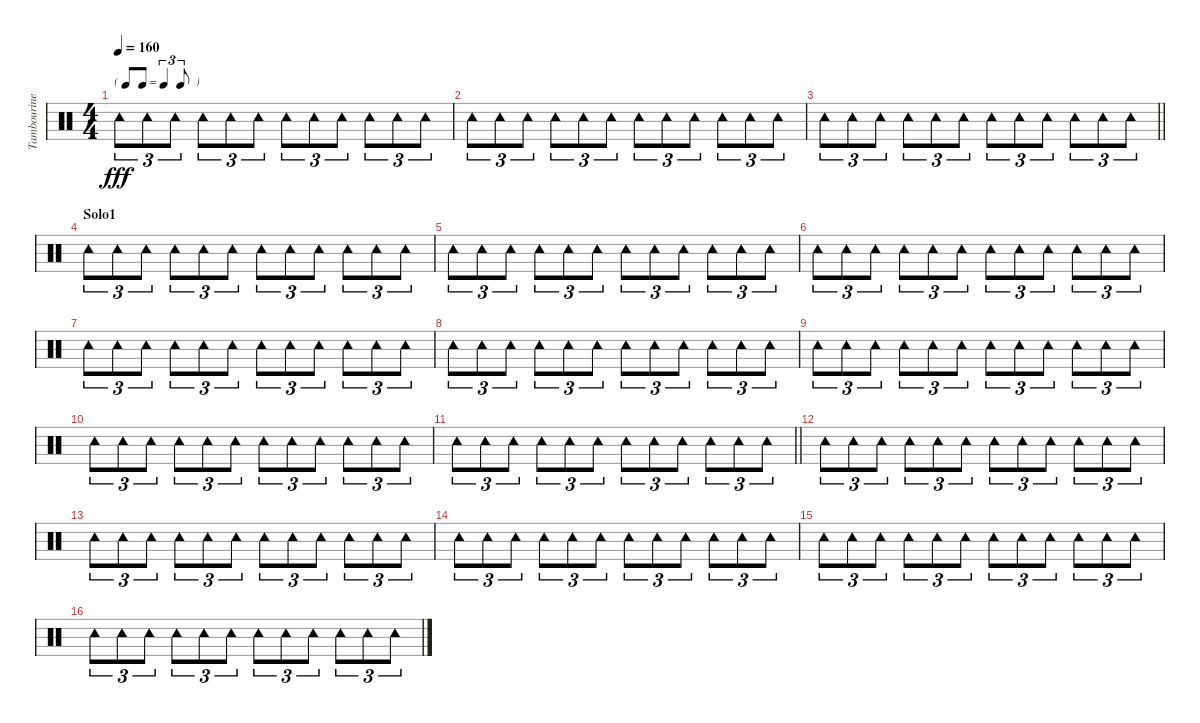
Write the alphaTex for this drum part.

\track ("Tambourine" "Tambourine") {instrument percussion}
\staff {score}
\articulation defaults
\ts (4 4)
\tf triplet8th
\tempo 160
\clef neutral
\ks c "Tambourine (hit)".8{tu (3 2) dy fff} "Tambourine (hit)".8{tu (3 2)} "Tambourine (hit)".8{tu (3 2)} "Tambourine (hit)".8{tu (3 2)} "Tambourine (hit)".8{tu (3 2)} "Tambourine (hit)".8{tu (3 2)} "Tambourine (hit)".8{tu (3 2)} "Tambourine (hit)".8{tu (3 2)} "Tambourine (hit)".8{tu (3 2)} "Tambourine (hit)".8{tu (3 2)} "Tambourine (hit)".8{tu (3 2)} "Tambourine (hit)".8{tu (3 2)}
|
"Tambourine (hit)".8{tu (3 2)} "Tambourine (hit)".8{tu (3 2)} "Tambourine (hit)".8{tu (3 2)} "Tambourine (hit)".8{tu (3 2)} "Tambourine (hit)".8{tu (3 2)} "Tambourine (hit)".8{tu (3 2)} "Tambourine (hit)".8{tu (3 2)} "Tambourine (hit)".8{tu (3 2)} "Tambourine (hit)".8{tu (3 2)} "Tambourine (hit)".8{tu (3 2)} "Tambourine (hit)".8{tu (3 2)} "Tambourine (hit)".8{tu (3 2)} |
\barLineRight lightlight "Tambourine (hit)".8{tu (3 2)} "Tambourine (hit)".8{tu (3 2)} "Tambourine (hit)".8{tu (3 2)} "Tambourine (hit)".8{tu (3 2)} "Tambourine (hit)".8{tu (3 2)} "Tambourine (hit)".8{tu (3 2)} "Tambourine (hit)".8{tu (3 2)} "Tambourine (hit)".8{tu (3 2)} "Tambourine (hit)".8{tu (3 2)} "Tambourine (hit)".8{tu (3 2)} "Tambourine (hit)".8{tu (3 2)} "Tambourine (hit)".8{tu (3 2)}
|
\section ("" "Solo1")
"Tambourine (hit)".8{tu (3 2)} "Tambourine (hit)".8{tu (3 2)} "Tambourine (hit)".8{tu (3 2)} "Tambourine (hit)".8{tu (3 2)} "Tambourine (hit)".8{tu (3 2)} "Tambourine (hit)".8{tu (3 2)} "Tambourine (hit)".8{tu (3 2)} "Tambourine (hit)".8{tu (3 2)} "Tambourine (hit)".8{tu (3 2)} "Tambourine (hit)".8{tu (3 2)} "Tambourine (hit)".8{tu (3 2)} "Tambourine (hit)".8{tu (3 2)} |
"Tambourine (hit)".8{tu (3 2)} "Tambourine (hit)".8{tu (3 2)} "Tambourine (hit)".8{tu (3 2)} "Tambourine (hit)".8{tu (3 2)} "Tambourine (hit)".8{tu (3 2)} "Tambourine (hit)".8{tu (3 2)} "Tambourine (hit)".8{tu (3 2)} "Tambourine (hit)".8{tu (3 2)} "Tambourine (hit)".8{tu (3 2)} "Tambourine (hit)".8{tu (3 2)} "Tambourine (hit)".8{tu (3 2)} "Tambourine (hit)".8{tu (3 2)} |
"Tambourine (hit)".8{tu (3 2)} "Tambourine (hit)".8{tu (3 2)} "Tambourine (hit)".8{tu (3 2)} "Tambourine (hit)".8{tu (3 2)} "Tambourine (hit)".8{tu (3 2)} "Tambourine (hit)".8{tu (3 2)} "Tambourine (hit)".8{tu (3 2)} "Tambourine (hit)".8{tu (3 2)} "Tambourine (hit)".8{tu (3 2)} "Tambourine (hit)".8{tu (3 2)} "Tambourine (hit)".8{tu (3 2)} "Tambourine (hit)".8{tu (3 2)} |
"Tambourine (hit)".8{tu (3 2)} "Tambourine (hit)".8{tu (3 2)} "Tambourine (hit)".8{tu (3 2)} "Tambourine (hit)".8{tu (3 2)} "Tambourine (hit)".8{tu (3 2)} "Tambourine (hit)".8{tu (3 2)} "Tambourine (hit)".8{tu (3 2)} "Tambourine (hit)".8{tu (3 2)} "Tambourine (hit)".8{tu (3 2)} "Tambourine (hit)".8{tu (3 2)} "Tambourine (hit)".8{tu (3 2)} "Tambourine (hit)".8{tu (3 2)} |
"Tambourine (hit)".8{tu (3 2)} "Tambourine (hit)".8{tu (3 2)} "Tambourine (hit)".8{tu (3 2)} "Tambourine (hit)".8{tu (3 2)} "Tambourine (hit)".8{tu (3 2)} "Tambourine (hit)".8{tu (3 2)} "Tambourine (hit)".8{tu (3 2)} "Tambourine (hit)".8{tu (3 2)} "Tambourine (hit)".8{tu (3 2)} "Tambourine (hit)".8{tu (3 2)} "Tambourine (hit)".8{tu (3 2)} "Tambourine (hit)".8{tu (3 2)} |
"Tambourine (hit)".8{tu (3 2)} "Tambourine (hit)".8{tu (3 2)} "Tambourine (hit)".8{tu (3 2)} "Tambourine (hit)".8{tu (3 2)} "Tambourine (hit)".8{tu (3 2)} "Tambourine (hit)".8{tu (3 2)} "Tambourine (hit)".8{tu (3 2)} "Tambourine (hit)".8{tu (3 2)} "Tambourine (hit)".8{tu (3 2)} "Tambourine (hit)".8{tu (3 2)} "Tambourine (hit)".8{tu (3 2)} "Tambourine (hit)".8{tu (3 2)} |
"Tambourine (hit)".8{tu (3 2)} "Tambourine (hit)".8{tu (3 2)} "Tambourine (hit)".8{tu (3 2)} "Tambourine (hit)".8{tu (3 2)} "Tambourine (hit)".8{tu (3 2)} "Tambourine (hit)".8{tu (3 2)} "Tambourine (hit)".8{tu (3 2)} "Tambourine (hit)".8{tu (3 2)} "Tambourine (hit)".8{tu (3 2)} "Tambourine (hit)".8{tu (3 2)} "Tambourine (hit)".8{tu (3 2)} "Tambourine (hit)".8{tu (3 2)} |
\barLineRight lightlight "Tambourine (hit)".8{tu (3 2)} "Tambourine (hit)".8{tu (3 2)} "Tambourine (hit)".8{tu (3 2)} "Tambourine (hit)".8{tu (3 2)} "Tambourine (hit)".8{tu (3 2)} "Tambourine (hit)".8{tu (3 2)} "Tambourine (hit)".8{tu (3 2)} "Tambourine (hit)".8{tu (3 2)} "Tambourine (hit)".8{tu (3 2)} "Tambourine (hit)".8{tu (3 2)} "Tambourine (hit)".8{tu (3 2)} "Tambourine (hit)".8{tu (3 2)}
|
"Tambourine (hit)".8{tu (3 2)} "Tambourine (hit)".8{tu (3 2)} "Tambourine (hit)".8{tu (3 2)} "Tambourine (hit)".8{tu (3 2)} "Tambourine (hit)".8{tu (3 2)} "Tambourine (hit)".8{tu (3 2)} "Tambourine (hit)".8{tu (3 2)} "Tambourine (hit)".8{tu (3 2)} "Tambourine (hit)".8{tu (3 2)} "Tambourine (hit)".8{tu (3 2)} "Tambourine (hit)".8{tu (3 2)} "Tambourine (hit)".8{tu (3 2)} |
"Tambourine (hit)".8{tu (3 2)} "Tambourine (hit)".8{tu (3 2)} "Tambourine (hit)".8{tu (3 2)} "Tambourine (hit)".8{tu (3 2)} "Tambourine (hit)".8{tu (3 2)} "Tambourine (hit)".8{tu (3 2)} "Tambourine (hit)".8{tu (3 2)} "Tambourine (hit)".8{tu (3 2)} "Tambourine (hit)".8{tu (3 2)} "Tambourine (hit)".8{tu (3 2)} "Tambourine (hit)".8{tu (3 2)} "Tambourine (hit)".8{tu (3 2)} |
"Tambourine (hit)".8{tu (3 2)} "Tambourine (hit)".8{tu (3 2)} "Tambourine (hit)".8{tu (3 2)} "Tambourine (hit)".8{tu (3 2)} "Tambourine (hit)".8{tu (3 2)} "Tambourine (hit)".8{tu (3 2)} "Tambourine (hit)".8{tu (3 2)} "Tambourine (hit)".8{tu (3 2)} "Tambourine (hit)".8{tu (3 2)} "Tambourine (hit)".8{tu (3 2)} "Tambourine (hit)".8{tu (3 2)} "Tambourine (hit)".8{tu (3 2)} |
"Tambourine (hit)".8{tu (3 2)} "Tambourine (hit)".8{tu (3 2)} "Tambourine (hit)".8{tu (3 2)} "Tambourine (hit)".8{tu (3 2)} "Tambourine (hit)".8{tu (3 2)} "Tambourine (hit)".8{tu (3 2)} "Tambourine (hit)".8{tu (3 2)} "Tambourine (hit)".8{tu (3 2)} "Tambourine (hit)".8{tu (3 2)} "Tambourine (hit)".8{tu (3 2)} "Tambourine (hit)".8{tu (3 2)} "Tambourine (hit)".8{tu (3 2)} |
"Tambourine (hit)".8{tu (3 2)} "Tambourine (hit)".8{tu (3 2)} "Tambourine (hit)".8{tu (3 2)} "Tambourine (hit)".8{tu (3 2)} "Tambourine (hit)".8{tu (3 2)} "Tambourine (hit)".8{tu (3 2)} "Tambourine (hit)".8{tu (3 2)} "Tambourine (hit)".8{tu (3 2)} "Tambourine (hit)".8{tu (3 2)} "Tambourine (hit)".8{tu (3 2)} "Tambourine (hit)".8{tu (3 2)} "Tambourine (hit)".8{tu (3 2)}
